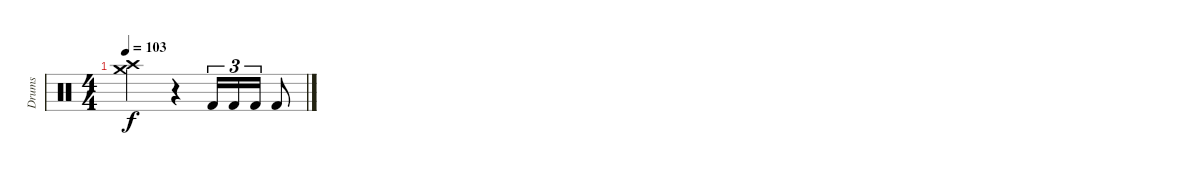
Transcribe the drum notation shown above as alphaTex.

\track ("Drums" "Drums") {instrument percussion}
\staff {score}
\articulation defaults
\ts (4 4)
\tempo 103
\clef neutral
\ks c
("Crash medium (hit)" "Crash high (hit)").2{dy f} r.4 "Kick (hit) 2".16{tu (3 2)} "Kick (hit) 2".16{tu (3 2)} "Kick (hit) 2".16{tu (3 2)} "Kick (hit) 2".8
